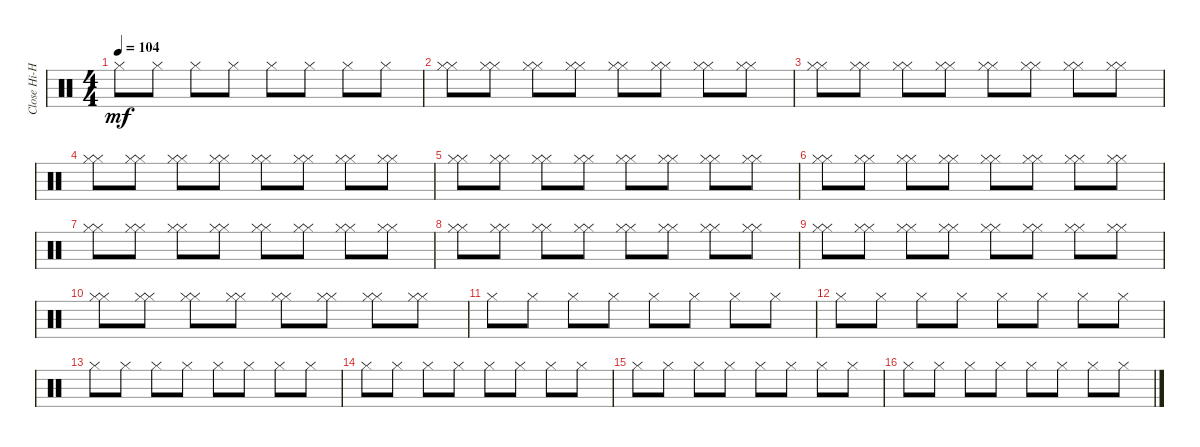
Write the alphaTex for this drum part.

\track ("Close Hi-Hat" "Close Hi-H") {instrument percussion}
\staff {score}
\articulation defaults
\ts (4 4)
\tempo 104
\clef neutral
\ks c "Hi-Hat (closed)".8{dy mf} "Hi-Hat (closed)".8 "Hi-Hat (closed)".8 "Hi-Hat (closed)".8 "Hi-Hat (closed)".8 "Hi-Hat (closed)".8 "Hi-Hat (closed)".8 "Hi-Hat (closed)".8
|
("Hi-Hat (closed)" "Hi-Hat (closed)").8 ("Hi-Hat (closed)" "Hi-Hat (closed)").8 ("Hi-Hat (closed)" "Hi-Hat (closed)").8 ("Hi-Hat (closed)" "Hi-Hat (closed)").8 ("Hi-Hat (closed)" "Hi-Hat (closed)").8 ("Hi-Hat (closed)" "Hi-Hat (closed)").8 ("Hi-Hat (closed)" "Hi-Hat (closed)").8 ("Hi-Hat (closed)" "Hi-Hat (closed)").8 |
("Hi-Hat (closed)" "Hi-Hat (closed)").8 ("Hi-Hat (closed)" "Hi-Hat (closed)").8 ("Hi-Hat (closed)" "Hi-Hat (closed)").8 ("Hi-Hat (closed)" "Hi-Hat (closed)").8 ("Hi-Hat (closed)" "Hi-Hat (closed)").8 ("Hi-Hat (closed)" "Hi-Hat (closed)").8 ("Hi-Hat (closed)" "Hi-Hat (closed)").8 ("Hi-Hat (closed)" "Hi-Hat (closed)").8 |
("Hi-Hat (closed)" "Hi-Hat (closed)").8 ("Hi-Hat (closed)" "Hi-Hat (closed)").8 ("Hi-Hat (closed)" "Hi-Hat (closed)").8 ("Hi-Hat (closed)" "Hi-Hat (closed)").8 ("Hi-Hat (closed)" "Hi-Hat (closed)").8 ("Hi-Hat (closed)" "Hi-Hat (closed)").8 ("Hi-Hat (closed)" "Hi-Hat (closed)").8 ("Hi-Hat (closed)" "Hi-Hat (closed)").8 |
("Hi-Hat (closed)" "Hi-Hat (closed)").8 ("Hi-Hat (closed)" "Hi-Hat (closed)").8 ("Hi-Hat (closed)" "Hi-Hat (closed)").8 ("Hi-Hat (closed)" "Hi-Hat (closed)").8 ("Hi-Hat (closed)" "Hi-Hat (closed)").8 ("Hi-Hat (closed)" "Hi-Hat (closed)").8 ("Hi-Hat (closed)" "Hi-Hat (closed)").8 ("Hi-Hat (closed)" "Hi-Hat (closed)").8 |
("Hi-Hat (closed)" "Hi-Hat (closed)").8 ("Hi-Hat (closed)" "Hi-Hat (closed)").8 ("Hi-Hat (closed)" "Hi-Hat (closed)").8 ("Hi-Hat (closed)" "Hi-Hat (closed)").8 ("Hi-Hat (closed)" "Hi-Hat (closed)").8 ("Hi-Hat (closed)" "Hi-Hat (closed)").8 ("Hi-Hat (closed)" "Hi-Hat (closed)").8 ("Hi-Hat (closed)" "Hi-Hat (closed)").8 |
("Hi-Hat (closed)" "Hi-Hat (closed)").8 ("Hi-Hat (closed)" "Hi-Hat (closed)").8 ("Hi-Hat (closed)" "Hi-Hat (closed)").8 ("Hi-Hat (closed)" "Hi-Hat (closed)").8 ("Hi-Hat (closed)" "Hi-Hat (closed)").8 ("Hi-Hat (closed)" "Hi-Hat (closed)").8 ("Hi-Hat (closed)" "Hi-Hat (closed)").8 ("Hi-Hat (closed)" "Hi-Hat (closed)").8 |
("Hi-Hat (closed)" "Hi-Hat (closed)").8 ("Hi-Hat (closed)" "Hi-Hat (closed)").8 ("Hi-Hat (closed)" "Hi-Hat (closed)").8 ("Hi-Hat (closed)" "Hi-Hat (closed)").8 ("Hi-Hat (closed)" "Hi-Hat (closed)").8 ("Hi-Hat (closed)" "Hi-Hat (closed)").8 ("Hi-Hat (closed)" "Hi-Hat (closed)").8 ("Hi-Hat (closed)" "Hi-Hat (closed)").8 |
("Hi-Hat (closed)" "Hi-Hat (closed)").8 ("Hi-Hat (closed)" "Hi-Hat (closed)").8 ("Hi-Hat (closed)" "Hi-Hat (closed)").8 ("Hi-Hat (closed)" "Hi-Hat (closed)").8 ("Hi-Hat (closed)" "Hi-Hat (closed)").8 ("Hi-Hat (closed)" "Hi-Hat (closed)").8 ("Hi-Hat (closed)" "Hi-Hat (closed)").8 ("Hi-Hat (closed)" "Hi-Hat (closed)").8 |
("Hi-Hat (closed)" "Hi-Hat (closed)").8 ("Hi-Hat (closed)" "Hi-Hat (closed)").8 ("Hi-Hat (closed)" "Hi-Hat (closed)").8 ("Hi-Hat (closed)" "Hi-Hat (closed)").8 ("Hi-Hat (closed)" "Hi-Hat (closed)").8 ("Hi-Hat (closed)" "Hi-Hat (closed)").8 ("Hi-Hat (closed)" "Hi-Hat (closed)").8 ("Hi-Hat (closed)" "Hi-Hat (closed)").8 |
"Hi-Hat (closed)".8 "Hi-Hat (closed)".8 "Hi-Hat (closed)".8 "Hi-Hat (closed)".8 "Hi-Hat (closed)".8 "Hi-Hat (closed)".8 "Hi-Hat (closed)".8 "Hi-Hat (closed)".8 |
"Hi-Hat (closed)".8 "Hi-Hat (closed)".8 "Hi-Hat (closed)".8 "Hi-Hat (closed)".8 "Hi-Hat (closed)".8 "Hi-Hat (closed)".8 "Hi-Hat (closed)".8 "Hi-Hat (closed)".8 |
"Hi-Hat (closed)".8 "Hi-Hat (closed)".8 "Hi-Hat (closed)".8 "Hi-Hat (closed)".8 "Hi-Hat (closed)".8 "Hi-Hat (closed)".8 "Hi-Hat (closed)".8 "Hi-Hat (closed)".8 |
"Hi-Hat (closed)".8 "Hi-Hat (closed)".8 "Hi-Hat (closed)".8 "Hi-Hat (closed)".8 "Hi-Hat (closed)".8 "Hi-Hat (closed)".8 "Hi-Hat (closed)".8 "Hi-Hat (closed)".8 |
"Hi-Hat (closed)".8 "Hi-Hat (closed)".8 "Hi-Hat (closed)".8 "Hi-Hat (closed)".8 "Hi-Hat (closed)".8 "Hi-Hat (closed)".8 "Hi-Hat (closed)".8 "Hi-Hat (closed)".8 |
"Hi-Hat (closed)".8 "Hi-Hat (closed)".8 "Hi-Hat (closed)".8 "Hi-Hat (closed)".8 "Hi-Hat (closed)".8 "Hi-Hat (closed)".8 "Hi-Hat (closed)".8 "Hi-Hat (closed)".8
